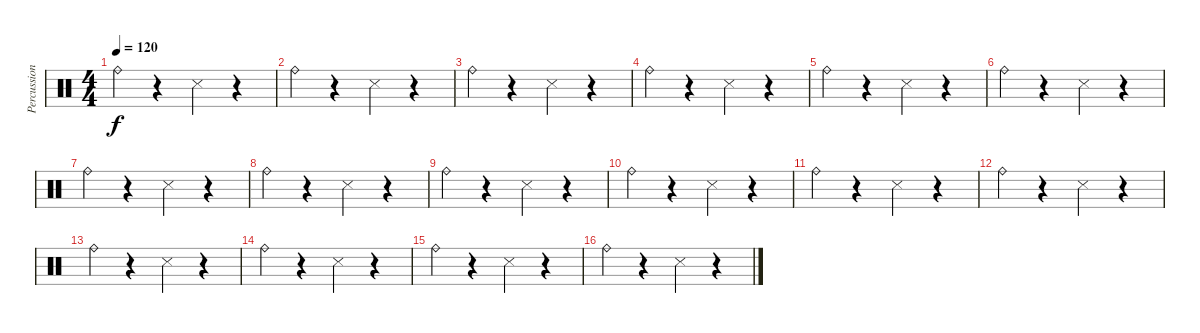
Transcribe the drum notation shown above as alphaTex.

\track ("Percussion" "Percussion") {instrument percussion}
\staff {score}
\articulation defaults
\ts (4 4)
\tempo 120
\clef neutral
\ks c "Ride (bell)".4{dy f}
r.4 "Snare (side stick) 3".4 r.4 |
"Ride (bell)".4 r.4 "Snare (side stick) 3".4 r.4 |
"Ride (bell)".4 r.4 "Snare (side stick) 3".4 r.4 |
"Ride (bell)".4 r.4 "Snare (side stick) 3".4 r.4 |
"Ride (bell)".4 r.4 "Snare (side stick) 3".4 r.4 |
"Ride (bell)".4 r.4 "Snare (side stick) 3".4 r.4 |
"Ride (bell)".4 r.4 "Snare (side stick) 3".4 r.4 |
"Ride (bell)".4 r.4 "Snare (side stick) 3".4 r.4 |
"Ride (bell)".4 r.4 "Snare (side stick) 3".4 r.4 |
"Ride (bell)".4 r.4 "Snare (side stick) 3".4 r.4 |
"Ride (bell)".4 r.4 "Snare (side stick) 3".4 r.4 |
"Ride (bell)".4 r.4 "Snare (side stick) 3".4 r.4 |
"Ride (bell)".4 r.4 "Snare (side stick) 3".4 r.4 |
"Ride (bell)".4 r.4 "Snare (side stick) 3".4 r.4 |
"Ride (bell)".4 r.4 "Snare (side stick) 3".4 r.4 |
"Ride (bell)".4 r.4 "Snare (side stick) 3".4 r.4
